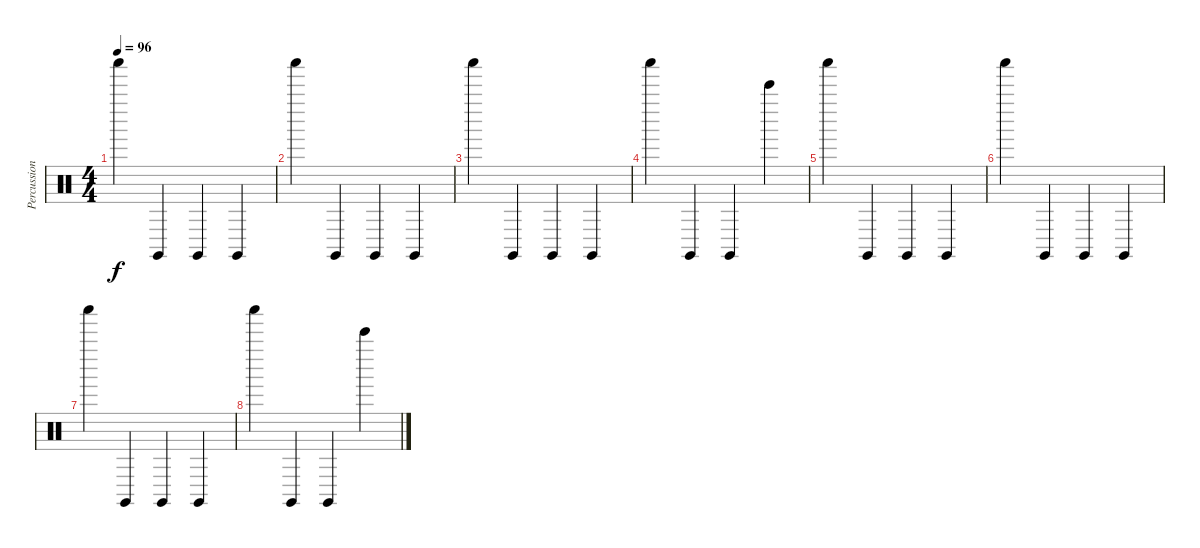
\track ("Percussion" "Percussion") {instrument percussion}
\staff {score}
\articulation defaults
\ts (4 4)
\tempo 96
\clef neutral
\ks c "Shaker (hit)".4{dy f} "Claves (hit)".4 "Claves (hit)".4 "Claves (hit)".4
|
"Shaker (hit)".4 "Claves (hit)".4 "Claves (hit)".4 "Claves (hit)".4 |
"Shaker (hit)".4 "Claves (hit)".4 "Claves (hit)".4 "Claves (hit)".4 |
"Shaker (hit)".4 "Claves (hit)".4 "Claves (hit)".4 "Bell Tree (hit)".4 |
"Shaker (hit)".4 "Claves (hit)".4 "Claves (hit)".4 "Claves (hit)".4 |
"Shaker (hit)".4 "Claves (hit)".4 "Claves (hit)".4 "Claves (hit)".4 |
"Shaker (hit)".4 "Claves (hit)".4 "Claves (hit)".4 "Claves (hit)".4 |
"Shaker (hit)".4 "Claves (hit)".4 "Claves (hit)".4 "Bell Tree (hit)".4
